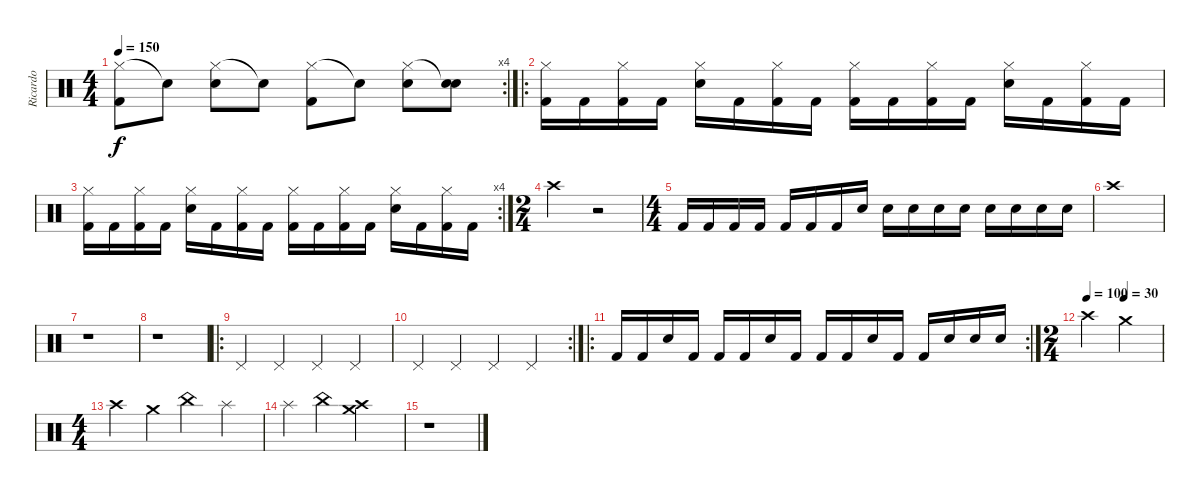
\track ("Ricardo" "Ricardo") {instrument percussion}
\staff {score}
\articulation defaults
\rc 4
\ts (4 4)
\tempo 150
\clef neutral
\ks c
("Hi-Hat (closed)" "Kick (hit) 2").8{dy f} "Snare (hit)"{t}.8 ("Hi-Hat (closed)" "Snare (hit) 2").8 "Snare (hit)"{t}.8 ("Hi-Hat (closed)" "Kick (hit) 2").8 "Snare (hit)"{t}.8 ("Hi-Hat (closed)" "Snare (hit) 2").8 ("Snare (hit)"{t} "Snare (hit) 2").8 |
\ro
("Hi-Hat (closed)" "Kick (hit) 2").16 "Kick (hit) 2".16 ("Hi-Hat (closed)" "Kick (hit) 2").16 "Kick (hit) 2".16 ("Hi-Hat (closed)" "Snare (hit) 2").16 "Kick (hit) 2".16 ("Hi-Hat (closed)" "Kick (hit) 2").16 "Kick (hit) 2".16 ("Hi-Hat (closed)" "Kick (hit) 2").16 "Kick (hit) 2".16 ("Hi-Hat (closed)" "Kick (hit) 2").16 "Kick (hit) 2".16 ("Hi-Hat (closed)" "Snare (hit) 2").16 "Kick (hit) 2".16 ("Hi-Hat (closed)" "Kick (hit) 2").16 "Kick (hit) 2".16 |
\rc 4
("Hi-Hat (closed)" "Kick (hit) 2").16 "Kick (hit) 2".16 ("Hi-Hat (closed)" "Kick (hit) 2").16 "Kick (hit) 2".16 ("Hi-Hat (closed)" "Snare (hit) 2").16 "Kick (hit) 2".16 ("Hi-Hat (closed)" "Kick (hit) 2").16 "Kick (hit) 2".16 ("Hi-Hat (closed)" "Kick (hit) 2").16 "Kick (hit) 2".16 ("Hi-Hat (closed)" "Kick (hit) 2").16 "Kick (hit) 2".16 ("Hi-Hat (closed)" "Snare (hit) 2").16 "Kick (hit) 2".16 ("Hi-Hat (closed)" "Kick (hit) 2").16 "Kick (hit) 2".16 |
\ts (2 4)
"Crash high (hit)".2 r.2 |
\ts (4 4)
"Kick (hit) 2".16 "Kick (hit) 2".16 "Kick (hit) 2".16 "Kick (hit) 2".16 "Kick (hit) 2".16 "Kick (hit) 2".16 "Kick (hit) 2".16 "Snare (hit) 2".16 "Snare (hit) 2".16 "Snare (hit) 2".16 "Snare (hit) 2".16 "Snare (hit) 2".16 "Snare (hit) 2".16 "Snare (hit) 2".16 "Snare (hit) 2".16 "Snare (hit) 2".16 |
"Crash high (hit)".1 |
r.1 |
r.1 |
\ro "Pedal Hi-Hat (hit)".4 "Pedal Hi-Hat (hit)".4 "Pedal Hi-Hat (hit)".4 "Pedal Hi-Hat (hit)".4
|
\rc 2 "Pedal Hi-Hat (hit)".4 "Pedal Hi-Hat (hit)".4 "Pedal Hi-Hat (hit)".4 "Pedal Hi-Hat (hit)".4
|
\ro
\rc 2 "Kick (hit) 2".16 "Kick (hit) 2".16 "Snare (hit) 2".16 "Kick (hit) 2".16 "Kick (hit) 2".16 "Kick (hit) 2".16 "Snare (hit) 2".16 "Kick (hit) 2".16 "Kick (hit) 2".16 "Kick (hit) 2".16 "Snare (hit) 2".16 "Kick (hit) 2".16 "Kick (hit) 2".16 "Snare (hit) 2".16 "Snare (hit) 2".16 "Snare (hit) 2".16
|
\ts (2 4)
\tempo 100
\tempo (30 0.5)
"Crash high (hit)".4 "Crash medium (hit)".4 |
\ts (4 4)
"Crash high (hit)".4 "Crash medium (hit)".4 "China (hit)".4 "Splash (hit)".4 |
"Splash (hit)".4 "China (hit)".4 ("Crash medium (hit)" "Crash high (hit)").2 |
r.1
